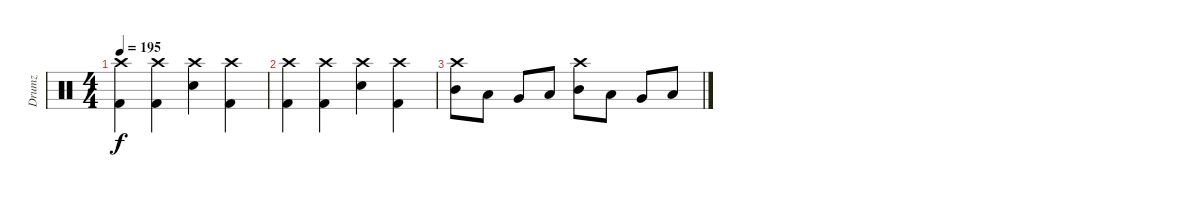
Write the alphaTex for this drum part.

\track ("Drumz" "Drumz") {instrument percussion}
\staff {score}
\articulation defaults
\ts (4 4)
\tempo 195
\clef neutral
\ks c
("Crash high (hit)" "Kick (hit) 2").4{dy f} ("Crash high (hit)" "Kick (hit) 2").4 ("Crash high (hit)" "Snare (hit) 2").4 ("Crash high (hit)" "Kick (hit) 2").4 |
("Crash high (hit)" "Kick (hit) 2").4 ("Crash high (hit)" "Kick (hit) 2").4 ("Crash high (hit)" "Snare (hit) 2").4 ("Crash high (hit)" "Kick (hit) 2").4 |
("Crash high (hit)" "Mid Tom (hit)").8 "Low Tom (hit)".8 "Very Low Tom (hit)".8 "Low Floor Tom (hit)".8 ("Crash high (hit)" "Mid Tom (hit)").8 "Low Tom (hit)".8 "Very Low Tom (hit)".8 "Low Floor Tom (hit)".8
